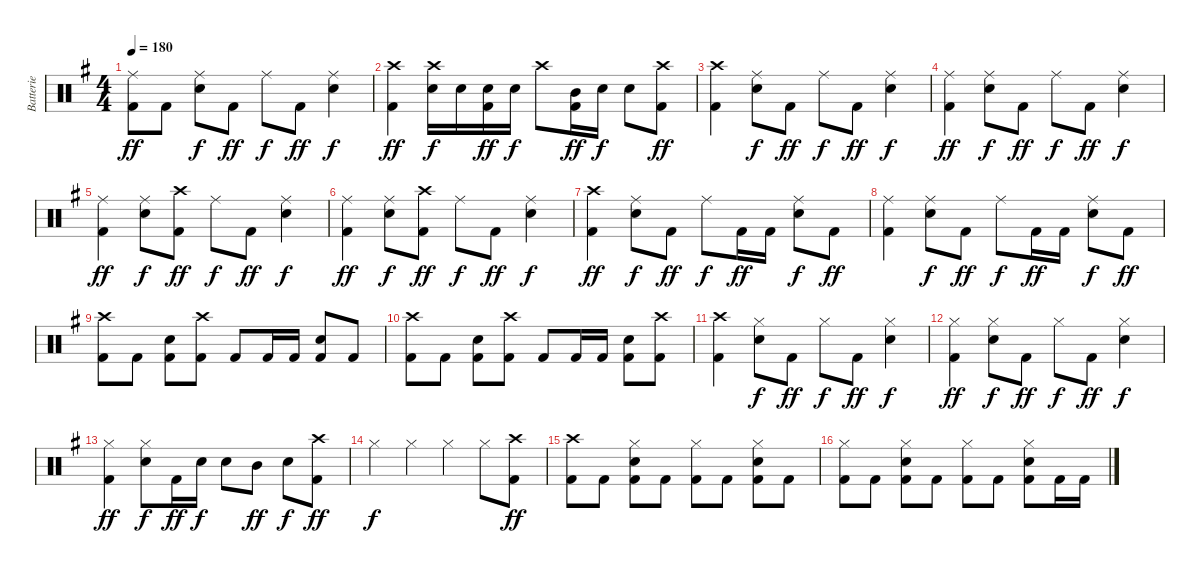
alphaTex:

\track ("Batterie" "Batterie") {instrument percussion}
\staff {score}
\articulation defaults
\ts (4 4)
\tempo 180
\clef neutral
\ks g
("Ride (middle)" "Kick (hit) 2").8{dy ff} "Kick (hit) 2".8 ("Ride (middle)" "Snare (hit) 2").8{dy f} "Kick (hit) 2".8{dy ff} "Ride (middle)".8{dy f} "Kick (hit) 2".8{dy ff} ("Ride (middle)" "Snare (hit) 2").4{dy f} |
("Crash high (hit)" "Kick (hit) 2").4{dy ff} ("Crash high (hit)" "Snare (hit) 2").16{dy f} "Snare (hit) 2".16 ("Snare (hit) 2" "Kick (hit) 2").16{dy ff} "Snare (hit) 2".16{dy f} "Crash high (hit)".8 ("Mid Tom (hit)" "Kick (hit) 2").16{dy ff} "Snare (hit) 2".16{dy f} "Snare (hit) 2".8 ("Crash high (hit)" "Kick (hit) 2").8{dy ff} |
("Crash high (hit)" "Kick (hit) 2").4 ("Ride (middle)" "Snare (hit) 2").8{dy f} "Kick (hit) 2".8{dy ff} "Ride (middle)".8{dy f} "Kick (hit) 2".8{dy ff} ("Ride (middle)" "Snare (hit) 2").4{dy f} |
("Ride (middle)" "Kick (hit) 2").4{dy ff} ("Ride (middle)" "Snare (hit) 2").8{dy f} "Kick (hit) 2".8{dy ff} "Ride (middle)".8{dy f} "Kick (hit) 2".8{dy ff} ("Ride (middle)" "Snare (hit) 2").4{dy f} |
("Ride (middle)" "Kick (hit) 2").4{dy ff} ("Ride (middle)" "Snare (hit) 2").8{dy f} ("Crash high (hit)" "Kick (hit) 2").8{dy ff} "Ride (middle)".8{dy f} "Kick (hit) 2".8{dy ff} ("Ride (middle)" "Snare (hit) 2").4{dy f} |
("Ride (middle)" "Kick (hit) 2").4{dy ff} ("Ride (middle)" "Snare (hit) 2").8{dy f} ("Crash high (hit)" "Kick (hit) 2").8{dy ff} "Ride (middle)".8{dy f} "Kick (hit) 2".8{dy ff} ("Ride (middle)" "Snare (hit) 2").4{dy f} |
("Crash high (hit)" "Kick (hit) 2").4{dy ff} ("Ride (middle)" "Snare (hit) 2").8{dy f} "Kick (hit) 2".8{dy ff} "Ride (middle)".8{dy f} "Kick (hit) 2".16{dy ff} "Kick (hit) 2".16 ("Ride (middle)" "Snare (hit) 2").8{dy f} "Kick (hit) 2".8{dy ff} |
("Ride (middle)" "Kick (hit) 2").4 ("Ride (middle)" "Snare (hit) 2").8{dy f} "Kick (hit) 2".8{dy ff} "Ride (middle)".8{dy f} "Kick (hit) 2".16{dy ff} "Kick (hit) 2".16 ("Ride (middle)" "Snare (hit) 2").8{dy f} "Kick (hit) 2".8{dy ff} |
("Crash high (hit)" "Kick (hit) 2").8 "Kick (hit) 2".8 ("Snare (hit) 2" "Kick (hit) 2").8 ("Crash high (hit)" "Kick (hit) 2").8 "Kick (hit) 2".8 "Kick (hit) 2".16 "Kick (hit) 2".16 ("Snare (hit) 2" "Kick (hit) 2").8 "Kick (hit) 2".8 |
("Crash high (hit)" "Kick (hit) 2").8 "Kick (hit) 2".8 ("Snare (hit) 2" "Kick (hit) 2").8 ("Crash high (hit)" "Kick (hit) 2").8 "Kick (hit) 2".8 "Kick (hit) 2".16 "Kick (hit) 2".16 ("Snare (hit) 2" "Kick (hit) 2").8 ("Crash high (hit)" "Kick (hit) 2").8 |
("Crash high (hit)" "Kick (hit) 2").4 ("Hi-Hat (closed)" "Snare (hit) 2").8{dy f} "Kick (hit) 2".8{dy ff} "Hi-Hat (closed)".8{dy f} "Kick (hit) 2".8{dy ff} ("Hi-Hat (closed)" "Snare (hit) 2").4{dy f} |
("Hi-Hat (closed)" "Kick (hit) 2").4{dy ff} ("Hi-Hat (closed)" "Snare (hit) 2").8{dy f} "Kick (hit) 2".8{dy ff} "Hi-Hat (closed)".8{dy f} "Kick (hit) 2".8{dy ff} ("Hi-Hat (closed)" "Snare (hit) 2").4{dy f} |
("Hi-Hat (closed)" "Kick (hit) 2").4{dy ff} ("Hi-Hat (closed)" "Snare (hit) 2").8{dy f} "Kick (hit) 2".16{dy ff} "Snare (hit) 2".16{dy f} "Snare (hit) 2".8 "Mid Tom (hit)".8{dy ff} "Snare (hit) 2".8{dy f} ("Crash high (hit)" "Kick (hit) 2").8{dy ff} |
"Hi-Hat (closed)".4{dy f} "Hi-Hat (closed)".4 "Hi-Hat (closed)".4 "Hi-Hat (closed)".8 ("Crash high (hit)" "Kick (hit) 2").8{dy ff} |
("Crash high (hit)" "Kick (hit) 2").8 "Kick (hit) 2".8 ("Hi-Hat (closed)" "Snare (hit) 2" "Kick (hit) 2").8 "Kick (hit) 2".8 ("Hi-Hat (closed)" "Kick (hit) 2").8 "Kick (hit) 2".8 ("Hi-Hat (closed)" "Snare (hit) 2" "Kick (hit) 2").8 "Kick (hit) 2".8 |
("Hi-Hat (closed)" "Kick (hit) 2").8 "Kick (hit) 2".8 ("Hi-Hat (closed)" "Snare (hit) 2" "Kick (hit) 2").8 "Kick (hit) 2".8 ("Hi-Hat (closed)" "Kick (hit) 2").8 "Kick (hit) 2".8 ("Hi-Hat (closed)" "Snare (hit) 2" "Kick (hit) 2").8 "Kick (hit) 2".16 "Kick (hit) 2".16
